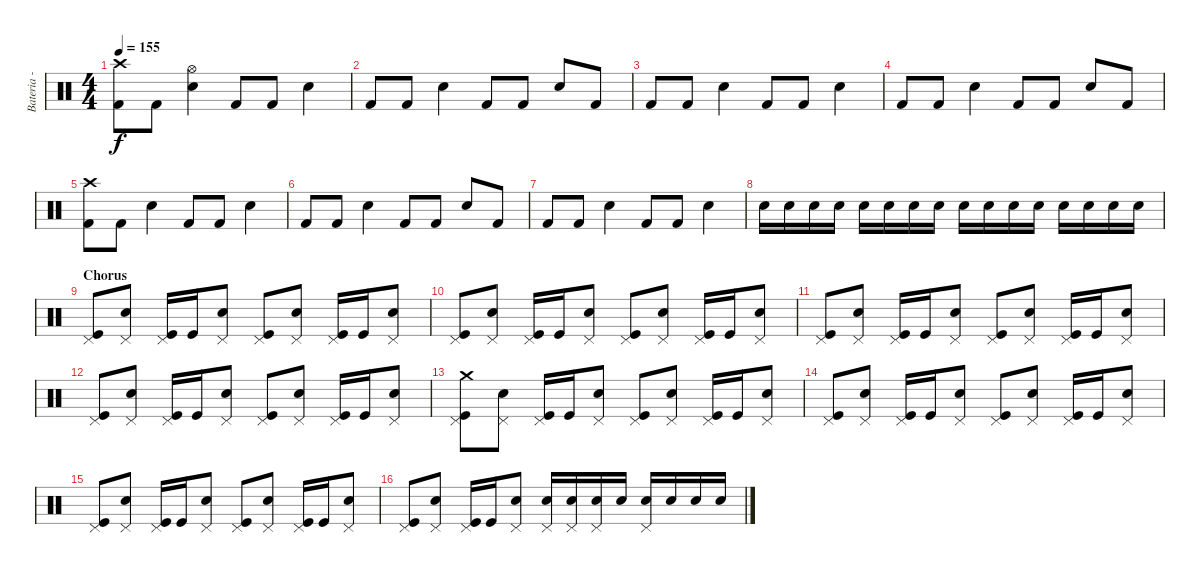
\track ("Bateria - Larzon" "Bateria - ") {instrument percussion}
\staff {score}
\articulation defaults
\ts (4 4)
\tempo 155
\clef neutral
\ks c
("Kick (hit) 2" "Crash high (hit)").8{dy f} "Kick (hit) 2".8 ("Snare (hit) 2" "Hi-Hat (open)").4 "Kick (hit) 2".8 "Kick (hit) 2".8 "Snare (hit) 2".4 |
"Kick (hit) 2".8 "Kick (hit) 2".8 "Snare (hit) 2".4 "Kick (hit) 2".8 "Kick (hit) 2".8 "Snare (hit) 2".8 "Kick (hit) 2".8 |
"Kick (hit) 2".8 "Kick (hit) 2".8 "Snare (hit) 2".4 "Kick (hit) 2".8 "Kick (hit) 2".8 "Snare (hit) 2".4 |
"Kick (hit) 2".8 "Kick (hit) 2".8 "Snare (hit) 2".4 "Kick (hit) 2".8 "Kick (hit) 2".8 "Snare (hit) 2".8 "Kick (hit) 2".8 |
("Kick (hit) 2" "Crash high (hit)").8 "Kick (hit) 2".8 "Snare (hit) 2".4 "Kick (hit) 2".8 "Kick (hit) 2".8 "Snare (hit) 2".4 |
"Kick (hit) 2".8 "Kick (hit) 2".8 "Snare (hit) 2".4 "Kick (hit) 2".8 "Kick (hit) 2".8 "Snare (hit) 2".8 "Kick (hit) 2".8 |
"Kick (hit) 2".8 "Kick (hit) 2".8 "Snare (hit) 2".4 "Kick (hit) 2".8 "Kick (hit) 2".8 "Snare (hit) 2".4 |
"Snare (hit) 2".16 "Snare (hit) 2".16 "Snare (hit) 2".16 "Snare (hit) 2".16 "Snare (hit) 2".16 "Snare (hit) 2".16 "Snare (hit) 2".16 "Snare (hit) 2".16 "Electric Snare (hit)".16 "Electric Snare (hit)".16 "Electric Snare (hit)".16 "Electric Snare (hit)".16 "Electric Snare (hit)".16 "Electric Snare (hit)".16 "Electric Snare (hit)".16 "Electric Snare (hit)".16 |
\section ("" "Chorus")
("Kick (hit)" "Pedal Hi-Hat (hit)").8 ("Snare (hit) 2" "Pedal Hi-Hat (hit)").8 ("Kick (hit)" "Pedal Hi-Hat (hit)").16 "Kick (hit)".16 ("Snare (hit) 2" "Pedal Hi-Hat (hit)").8 ("Pedal Hi-Hat (hit)" "Kick (hit)").8 ("Snare (hit) 2" "Pedal Hi-Hat (hit)").8 ("Kick (hit)" "Pedal Hi-Hat (hit)").16 "Kick (hit)".16 ("Snare (hit) 2" "Pedal Hi-Hat (hit)").8 |
("Pedal Hi-Hat (hit)" "Kick (hit)").8 ("Snare (hit) 2" "Pedal Hi-Hat (hit)").8 ("Kick (hit)" "Pedal Hi-Hat (hit)").16 "Kick (hit)".16 ("Snare (hit) 2" "Pedal Hi-Hat (hit)").8 ("Kick (hit)" "Pedal Hi-Hat (hit)").8 ("Snare (hit) 2" "Pedal Hi-Hat (hit)").8 ("Kick (hit)" "Pedal Hi-Hat (hit)").16 "Kick (hit)".16 ("Snare (hit) 2" "Pedal Hi-Hat (hit)").8 |
("Pedal Hi-Hat (hit)" "Kick (hit)").8 ("Snare (hit) 2" "Pedal Hi-Hat (hit)").8 ("Kick (hit)" "Pedal Hi-Hat (hit)").16 "Kick (hit)".16 ("Snare (hit) 2" "Pedal Hi-Hat (hit)").8 ("Kick (hit)" "Pedal Hi-Hat (hit)").8 ("Snare (hit) 2" "Pedal Hi-Hat (hit)").8 ("Kick (hit)" "Pedal Hi-Hat (hit)").16 "Kick (hit)".16 ("Snare (hit) 2" "Pedal Hi-Hat (hit)").8 |
("Pedal Hi-Hat (hit)" "Kick (hit)").8 ("Snare (hit) 2" "Pedal Hi-Hat (hit)").8 ("Kick (hit)" "Pedal Hi-Hat (hit)").16 "Kick (hit)".16 ("Snare (hit) 2" "Pedal Hi-Hat (hit)").8 ("Kick (hit)" "Pedal Hi-Hat (hit)").8 ("Snare (hit) 2" "Pedal Hi-Hat (hit)").8 ("Kick (hit)" "Pedal Hi-Hat (hit)").16 "Kick (hit)".16 ("Snare (hit) 2" "Pedal Hi-Hat (hit)").8 |
("Kick (hit)" "Pedal Hi-Hat (hit)" "Crash medium (hit)").8 ("Snare (hit) 2" "Pedal Hi-Hat (hit)").8 ("Kick (hit)" "Pedal Hi-Hat (hit)").16 "Kick (hit)".16 ("Snare (hit) 2" "Pedal Hi-Hat (hit)").8 ("Pedal Hi-Hat (hit)" "Kick (hit)").8 ("Snare (hit) 2" "Pedal Hi-Hat (hit)").8 ("Kick (hit)" "Pedal Hi-Hat (hit)").16 "Kick (hit)".16 ("Snare (hit) 2" "Pedal Hi-Hat (hit)").8 |
("Pedal Hi-Hat (hit)" "Kick (hit)").8 ("Snare (hit) 2" "Pedal Hi-Hat (hit)").8 ("Kick (hit)" "Pedal Hi-Hat (hit)").16 "Kick (hit)".16 ("Snare (hit) 2" "Pedal Hi-Hat (hit)").8 ("Kick (hit)" "Pedal Hi-Hat (hit)").8 ("Snare (hit) 2" "Pedal Hi-Hat (hit)").8 ("Kick (hit)" "Pedal Hi-Hat (hit)").16 "Kick (hit)".16 ("Snare (hit) 2" "Pedal Hi-Hat (hit)").8 |
("Pedal Hi-Hat (hit)" "Kick (hit)").8 ("Snare (hit) 2" "Pedal Hi-Hat (hit)").8 ("Kick (hit)" "Pedal Hi-Hat (hit)").16 "Kick (hit)".16 ("Snare (hit) 2" "Pedal Hi-Hat (hit)").8 ("Kick (hit)" "Pedal Hi-Hat (hit)").8 ("Snare (hit) 2" "Pedal Hi-Hat (hit)").8 ("Kick (hit)" "Pedal Hi-Hat (hit)").16 "Kick (hit)".16 ("Snare (hit) 2" "Pedal Hi-Hat (hit)").8 |
("Pedal Hi-Hat (hit)" "Kick (hit)").8 ("Snare (hit) 2" "Pedal Hi-Hat (hit)").8 ("Kick (hit)" "Pedal Hi-Hat (hit)").16 "Kick (hit)".16 ("Snare (hit) 2" "Pedal Hi-Hat (hit)").8 ("Snare (hit) 2" "Pedal Hi-Hat (hit)").16 ("Snare (hit) 2" "Pedal Hi-Hat (hit)").16 ("Snare (hit) 2" "Pedal Hi-Hat (hit)").16 "Snare (hit) 2".16 ("Electric Snare (hit)" "Pedal Hi-Hat (hit)").16 "Electric Snare (hit)".16 "Electric Snare (hit)".16 "Electric Snare (hit)".16
